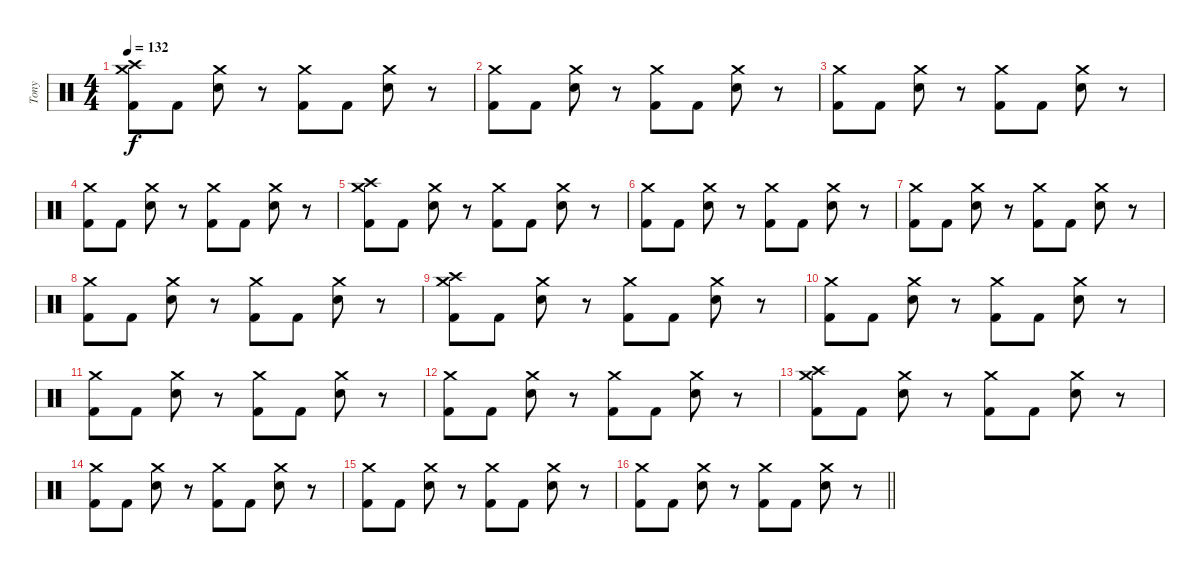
\track ("Tony" "Tony") {instrument percussion}
\staff {score}
\articulation defaults
\ts (4 4)
\section ("" "")
\tempo 132
\clef neutral
\ks c
("Crash medium (hit)" "Crash high (hit)" "Kick (hit) 2").8{dy f} "Kick (hit) 2".8 ("Crash medium (hit)" "Electric Snare (hit)").8 r.8 ("Crash medium (hit)" "Kick (hit) 2").8 "Kick (hit) 2".8 ("Crash medium (hit)" "Electric Snare (hit)").8 r.8 |
("Crash medium (hit)" "Kick (hit) 2").8 "Kick (hit) 2".8 ("Crash medium (hit)" "Electric Snare (hit)").8 r.8 ("Crash medium (hit)" "Kick (hit) 2").8 "Kick (hit) 2".8 ("Crash medium (hit)" "Electric Snare (hit)").8 r.8 |
("Crash medium (hit)" "Kick (hit) 2").8 "Kick (hit) 2".8 ("Crash medium (hit)" "Electric Snare (hit)").8 r.8 ("Crash medium (hit)" "Kick (hit) 2").8 "Kick (hit) 2".8 ("Crash medium (hit)" "Electric Snare (hit)").8 r.8 |
("Crash medium (hit)" "Kick (hit) 2").8 "Kick (hit) 2".8 ("Crash medium (hit)" "Electric Snare (hit)").8 r.8 ("Crash medium (hit)" "Kick (hit) 2").8 "Kick (hit) 2".8 ("Crash medium (hit)" "Electric Snare (hit)").8 r.8 |
("Crash medium (hit)" "Crash high (hit)" "Kick (hit) 2").8 "Kick (hit) 2".8 ("Crash medium (hit)" "Electric Snare (hit)").8 r.8 ("Crash medium (hit)" "Kick (hit) 2").8 "Kick (hit) 2".8 ("Crash medium (hit)" "Electric Snare (hit)").8 r.8 |
("Crash medium (hit)" "Kick (hit) 2").8 "Kick (hit) 2".8 ("Crash medium (hit)" "Electric Snare (hit)").8 r.8 ("Crash medium (hit)" "Kick (hit) 2").8 "Kick (hit) 2".8 ("Crash medium (hit)" "Electric Snare (hit)").8 r.8 |
("Crash medium (hit)" "Kick (hit) 2").8 "Kick (hit) 2".8 ("Crash medium (hit)" "Electric Snare (hit)").8 r.8 ("Crash medium (hit)" "Kick (hit) 2").8 "Kick (hit) 2".8 ("Crash medium (hit)" "Electric Snare (hit)").8 r.8 |
("Crash medium (hit)" "Kick (hit) 2").8 "Kick (hit) 2".8 ("Crash medium (hit)" "Electric Snare (hit)").8 r.8 ("Crash medium (hit)" "Kick (hit) 2").8 "Kick (hit) 2".8 ("Crash medium (hit)" "Electric Snare (hit)").8 r.8 |
("Crash medium (hit)" "Crash high (hit)" "Kick (hit) 2").8 "Kick (hit) 2".8 ("Crash medium (hit)" "Electric Snare (hit)").8 r.8 ("Crash medium (hit)" "Kick (hit) 2").8 "Kick (hit) 2".8 ("Crash medium (hit)" "Electric Snare (hit)").8 r.8 |
("Crash medium (hit)" "Kick (hit) 2").8 "Kick (hit) 2".8 ("Crash medium (hit)" "Electric Snare (hit)").8 r.8 ("Crash medium (hit)" "Kick (hit) 2").8 "Kick (hit) 2".8 ("Crash medium (hit)" "Electric Snare (hit)").8 r.8 |
("Crash medium (hit)" "Kick (hit) 2").8 "Kick (hit) 2".8 ("Crash medium (hit)" "Electric Snare (hit)").8 r.8 ("Crash medium (hit)" "Kick (hit) 2").8 "Kick (hit) 2".8 ("Crash medium (hit)" "Electric Snare (hit)").8 r.8 |
("Crash medium (hit)" "Kick (hit) 2").8 "Kick (hit) 2".8 ("Crash medium (hit)" "Electric Snare (hit)").8 r.8 ("Crash medium (hit)" "Kick (hit) 2").8 "Kick (hit) 2".8 ("Crash medium (hit)" "Electric Snare (hit)").8 r.8 |
("Crash medium (hit)" "Crash high (hit)" "Kick (hit) 2").8 "Kick (hit) 2".8 ("Crash medium (hit)" "Electric Snare (hit)").8 r.8 ("Crash medium (hit)" "Kick (hit) 2").8 "Kick (hit) 2".8 ("Crash medium (hit)" "Electric Snare (hit)").8 r.8 |
("Crash medium (hit)" "Kick (hit) 2").8 "Kick (hit) 2".8 ("Crash medium (hit)" "Electric Snare (hit)").8 r.8 ("Crash medium (hit)" "Kick (hit) 2").8 "Kick (hit) 2".8 ("Crash medium (hit)" "Electric Snare (hit)").8 r.8 |
("Crash medium (hit)" "Kick (hit) 2").8 "Kick (hit) 2".8 ("Crash medium (hit)" "Electric Snare (hit)").8 r.8 ("Crash medium (hit)" "Kick (hit) 2").8 "Kick (hit) 2".8 ("Crash medium (hit)" "Electric Snare (hit)").8 r.8 |
\barLineRight lightlight
("Crash medium (hit)" "Kick (hit) 2").8 "Kick (hit) 2".8 ("Crash medium (hit)" "Electric Snare (hit)").8 r.8 ("Crash medium (hit)" "Kick (hit) 2").8 "Kick (hit) 2".8 ("Crash medium (hit)" "Electric Snare (hit)").8 r.8
